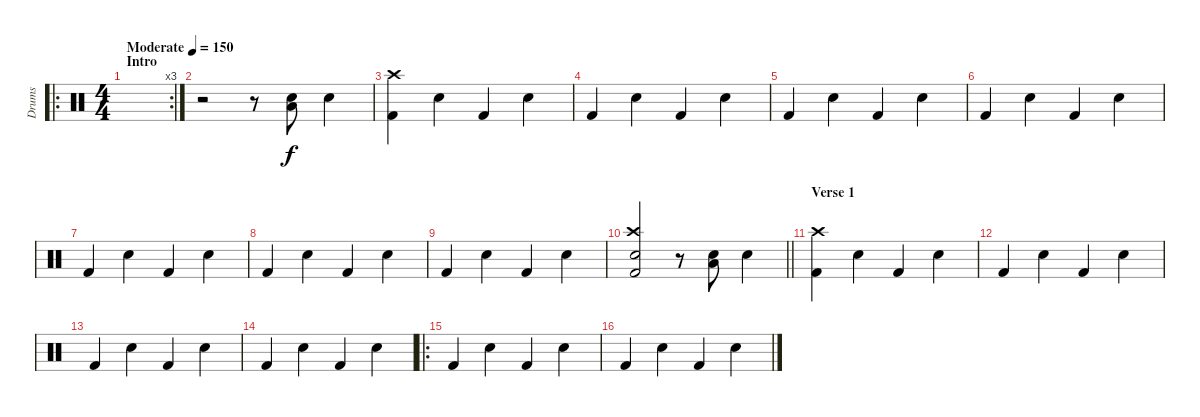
\track ("Drums" "Drums") {instrument percussion}
\staff {score}
\articulation defaults
\ro
\rc 3
\ts (4 4)
\section ("" "Intro")
\tempo (150 "Moderate")
\clef neutral
\ks c
|
r.2 r.8 ("Electric Snare (hit)" "Low Floor Tom (hit)").8 "Electric Snare (hit)".4 |
("Crash high (hit)" "Kick (hit) 2").4 "Electric Snare (hit)".4 "Kick (hit) 2".4 "Electric Snare (hit)".4 |
"Kick (hit) 2".4 "Electric Snare (hit)".4 "Kick (hit) 2".4 "Electric Snare (hit)".4 |
"Kick (hit) 2".4 "Electric Snare (hit)".4 "Kick (hit) 2".4 "Electric Snare (hit)".4 |
"Kick (hit) 2".4 "Electric Snare (hit)".4 "Kick (hit) 2".4 "Electric Snare (hit)".4 |
"Kick (hit) 2".4 "Electric Snare (hit)".4 "Kick (hit) 2".4 "Electric Snare (hit)".4 |
"Kick (hit) 2".4 "Electric Snare (hit)".4 "Kick (hit) 2".4 "Electric Snare (hit)".4 |
"Kick (hit) 2".4 "Electric Snare (hit)".4 "Kick (hit) 2".4 "Electric Snare (hit)".4 |
\barLineRight lightlight
("Crash high (hit)" "Electric Snare (hit)" "Kick (hit) 2").2 r.8 ("Electric Snare (hit)" "Low Floor Tom (hit)").8 "Electric Snare (hit)".4 |
\section ("" "Verse 1")
("Crash high (hit)" "Kick (hit) 2").4 "Electric Snare (hit)".4 "Kick (hit) 2".4 "Electric Snare (hit)".4 |
"Kick (hit) 2".4 "Electric Snare (hit)".4 "Kick (hit) 2".4 "Electric Snare (hit)".4 |
"Kick (hit) 2".4 "Electric Snare (hit)".4 "Kick (hit) 2".4 "Electric Snare (hit)".4 |
"Kick (hit) 2".4 "Electric Snare (hit)".4 "Kick (hit) 2".4 "Electric Snare (hit)".4 |
\ro "Kick (hit) 2".4 "Electric Snare (hit)".4 "Kick (hit) 2".4 "Electric Snare (hit)".4
|
"Kick (hit) 2".4 "Electric Snare (hit)".4 "Kick (hit) 2".4 "Electric Snare (hit)".4
